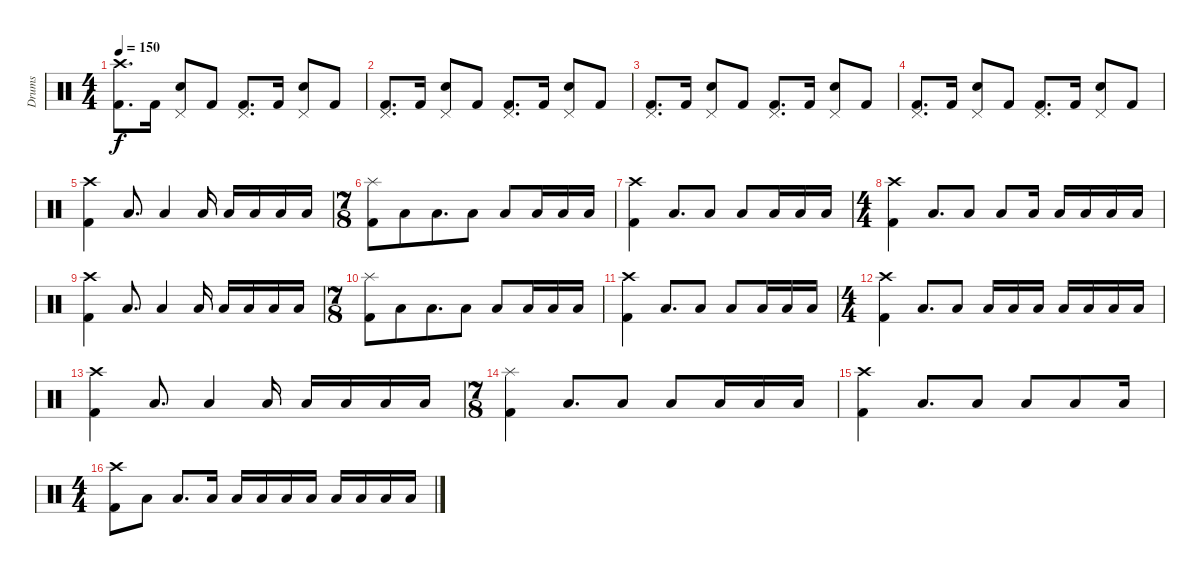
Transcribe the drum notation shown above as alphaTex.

\track ("Drums" "Drums") {instrument percussion}
\staff {score}
\articulation defaults
\ts (4 4)
\tempo 150
\clef neutral
\ks c
("Kick (hit) 2" "Crash high (hit)").8{d dy f} "Kick (hit) 2".16 ("Electric Snare (hit)" "Pedal Hi-Hat (hit)").8 "Kick (hit) 2".8 ("Kick (hit) 2" "Pedal Hi-Hat (hit)").8{d} "Kick (hit) 2".16 ("Electric Snare (hit)" "Pedal Hi-Hat (hit)").8 "Kick (hit) 2".8 |
("Kick (hit) 2" "Pedal Hi-Hat (hit)").8{d} "Kick (hit) 2".16 ("Electric Snare (hit)" "Pedal Hi-Hat (hit)").8 "Kick (hit) 2".8 ("Kick (hit) 2" "Pedal Hi-Hat (hit)").8{d} "Kick (hit) 2".16 ("Electric Snare (hit)" "Pedal Hi-Hat (hit)").8 "Kick (hit) 2".8 |
("Kick (hit) 2" "Pedal Hi-Hat (hit)").8{d} "Kick (hit) 2".16 ("Electric Snare (hit)" "Pedal Hi-Hat (hit)").8 "Kick (hit) 2".8 ("Kick (hit) 2" "Pedal Hi-Hat (hit)").8{d} "Kick (hit) 2".16 ("Electric Snare (hit)" "Pedal Hi-Hat (hit)").8 "Kick (hit) 2".8 |
("Kick (hit) 2" "Pedal Hi-Hat (hit)").8{d} "Kick (hit) 2".16 ("Electric Snare (hit)" "Pedal Hi-Hat (hit)").8 "Kick (hit) 2".8 ("Kick (hit) 2" "Pedal Hi-Hat (hit)").8{d} "Kick (hit) 2".16 ("Electric Snare (hit)" "Pedal Hi-Hat (hit)").8 "Kick (hit) 2".8 |
("Kick (hit) 2" "Crash high (hit)").4 "Low Tom (hit)".8{d} "Low Tom (hit)".4 "Low Tom (hit)".16 "Low Tom (hit)".16 "Low Tom (hit)".16 "Low Tom (hit)".16 "Low Tom (hit)".16 |
\ts (7 8)
("Kick (hit) 2" "Splash (hit)").8 "Low Tom (hit)".8 "Low Tom (hit)".8{d} "Low Tom (hit)".8 "Low Tom (hit)".8 "Low Tom (hit)".16 "Low Tom (hit)".16 "Low Tom (hit)".16 |
("Kick (hit) 2" "Crash high (hit)").4 "Low Tom (hit)".8{d} "Low Tom (hit)".8 "Low Tom (hit)".8 "Low Tom (hit)".16 "Low Tom (hit)".16 "Low Tom (hit)".16 |
\ts (4 4)
("Kick (hit) 2" "Crash high (hit)").4 "Low Tom (hit)".8{d} "Low Tom (hit)".8 "Low Tom (hit)".8 "Low Tom (hit)".16 "Low Tom (hit)".16 "Low Tom (hit)".16 "Low Tom (hit)".16 "Low Tom (hit)".16 |
("Kick (hit) 2" "Crash high (hit)").4 "Low Tom (hit)".8{d} "Low Tom (hit)".4 "Low Tom (hit)".16 "Low Tom (hit)".16 "Low Tom (hit)".16 "Low Tom (hit)".16 "Low Tom (hit)".16 |
\ts (7 8)
("Kick (hit) 2" "Splash (hit)").8 "Low Tom (hit)".8 "Low Tom (hit)".8{d} "Low Tom (hit)".8 "Low Tom (hit)".8 "Low Tom (hit)".16 "Low Tom (hit)".16 "Low Tom (hit)".16 |
("Kick (hit) 2" "Crash high (hit)").4 "Low Tom (hit)".8{d} "Low Tom (hit)".8 "Low Tom (hit)".8 "Low Tom (hit)".16 "Low Tom (hit)".16 "Low Tom (hit)".16 |
\ts (4 4)
("Kick (hit) 2" "Crash high (hit)").4 "Low Tom (hit)".8{d} "Low Tom (hit)".8 "Low Tom (hit)".16 "Low Tom (hit)".16 "Low Tom (hit)".16 "Low Tom (hit)".16 "Low Tom (hit)".16 "Low Tom (hit)".16 "Low Tom (hit)".16 |
("Kick (hit) 2" "Crash high (hit)").4 "Low Tom (hit)".8{d} "Low Tom (hit)".4 "Low Tom (hit)".16 "Low Tom (hit)".16 "Low Tom (hit)".16 "Low Tom (hit)".16 "Low Tom (hit)".16 |
\ts (7 8)
("Kick (hit) 2" "Splash (hit)").4 "Low Tom (hit)".8{d} "Low Tom (hit)".8 "Low Tom (hit)".8 "Low Tom (hit)".16 "Low Tom (hit)".16 "Low Tom (hit)".16 |
("Kick (hit) 2" "Crash high (hit)").4 "Low Tom (hit)".8{d} "Low Tom (hit)".8 "Low Tom (hit)".8 "Low Tom (hit)".8 "Low Tom (hit)".16 |
\ts (4 4)
("Kick (hit) 2" "Crash high (hit)").8 "Low Tom (hit)".8 "Low Tom (hit)".8{d} "Low Tom (hit)".16 "Low Tom (hit)".16 "Low Tom (hit)".16 "Low Tom (hit)".16 "Low Tom (hit)".16 "Low Tom (hit)".16 "Low Tom (hit)".16 "Low Tom (hit)".16 "Low Tom (hit)".16
